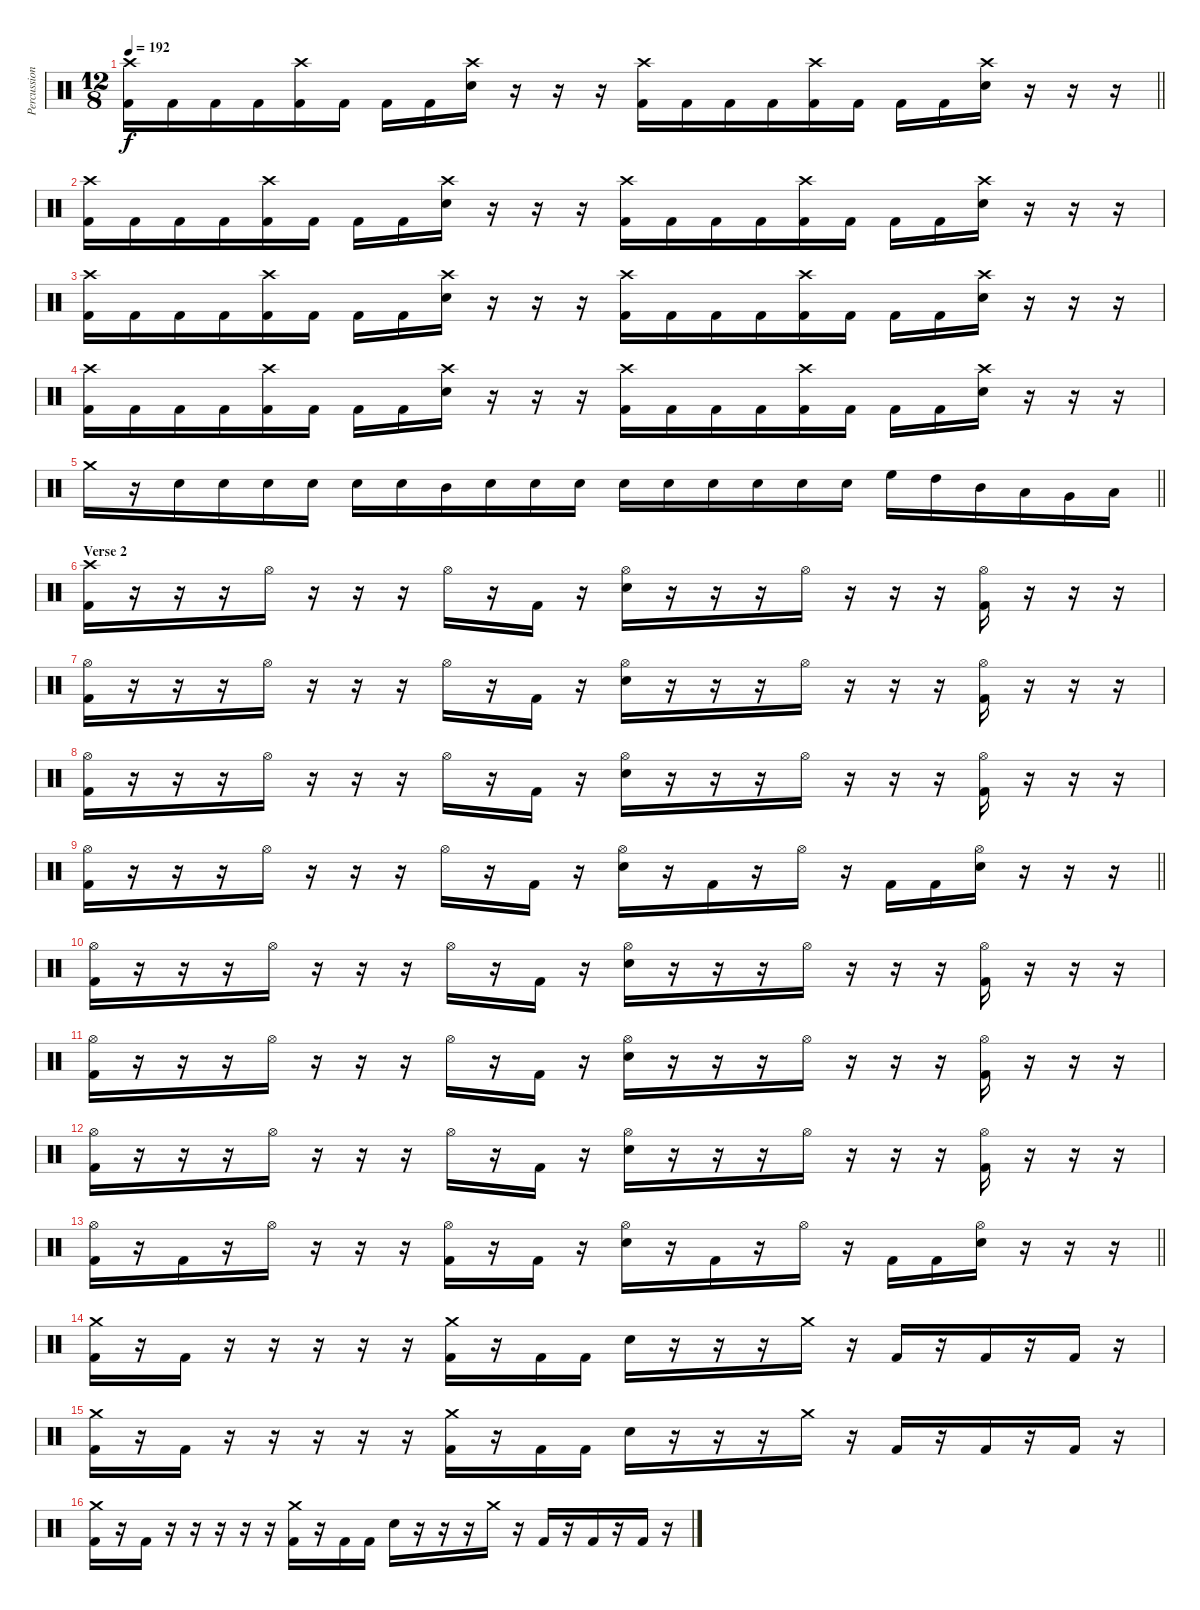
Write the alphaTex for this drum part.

\track ("Percussion" "Percussion") {instrument percussion}
\staff {score}
\articulation defaults
\ts (12 8)
\tempo 192
\clef neutral
\barLineRight lightlight
\ks c
("Crash high (hit)" "Kick (hit) 2").16{dy f} "Kick (hit) 2".16 "Kick (hit) 2".16 "Kick (hit) 2".16 ("Crash high (hit)" "Kick (hit) 2").16 "Kick (hit) 2".16 "Kick (hit) 2".16 "Kick (hit) 2".16 ("Crash high (hit)" "Electric Snare (hit)").16 r.16 r.16 r.16 ("Crash high (hit)" "Kick (hit) 2").16 "Kick (hit) 2".16 "Kick (hit) 2".16 "Kick (hit) 2".16 ("Crash high (hit)" "Kick (hit) 2").16 "Kick (hit) 2".16 "Kick (hit) 2".16 "Kick (hit) 2".16 ("Crash high (hit)" "Electric Snare (hit)").16 r.16 r.16 r.16 |
("Crash high (hit)" "Kick (hit) 2").16 "Kick (hit) 2".16 "Kick (hit) 2".16 "Kick (hit) 2".16 ("Crash high (hit)" "Kick (hit) 2").16 "Kick (hit) 2".16 "Kick (hit) 2".16 "Kick (hit) 2".16 ("Crash high (hit)" "Electric Snare (hit)").16 r.16 r.16 r.16 ("Crash high (hit)" "Kick (hit) 2").16 "Kick (hit) 2".16 "Kick (hit) 2".16 "Kick (hit) 2".16 ("Crash high (hit)" "Kick (hit) 2").16 "Kick (hit) 2".16 "Kick (hit) 2".16 "Kick (hit) 2".16 ("Crash high (hit)" "Electric Snare (hit)").16 r.16 r.16 r.16 |
("Crash high (hit)" "Kick (hit) 2").16 "Kick (hit) 2".16 "Kick (hit) 2".16 "Kick (hit) 2".16 ("Crash high (hit)" "Kick (hit) 2").16 "Kick (hit) 2".16 "Kick (hit) 2".16 "Kick (hit) 2".16 ("Crash high (hit)" "Electric Snare (hit)").16 r.16 r.16 r.16 ("Crash high (hit)" "Kick (hit) 2").16 "Kick (hit) 2".16 "Kick (hit) 2".16 "Kick (hit) 2".16 ("Crash high (hit)" "Kick (hit) 2").16 "Kick (hit) 2".16 "Kick (hit) 2".16 "Kick (hit) 2".16 ("Crash high (hit)" "Electric Snare (hit)").16 r.16 r.16 r.16 |
("Crash high (hit)" "Kick (hit) 2").16 "Kick (hit) 2".16 "Kick (hit) 2".16 "Kick (hit) 2".16 ("Crash high (hit)" "Kick (hit) 2").16 "Kick (hit) 2".16 "Kick (hit) 2".16 "Kick (hit) 2".16 ("Crash high (hit)" "Electric Snare (hit)").16 r.16 r.16 r.16 ("Crash high (hit)" "Kick (hit) 2").16 "Kick (hit) 2".16 "Kick (hit) 2".16 "Kick (hit) 2".16 ("Crash high (hit)" "Kick (hit) 2").16 "Kick (hit) 2".16 "Kick (hit) 2".16 "Kick (hit) 2".16 ("Crash high (hit)" "Electric Snare (hit)").16 r.16 r.16 r.16 |
\barLineRight lightlight "Crash medium (hit)".16
r.16 "Electric Snare (hit)".16 "Electric Snare (hit)".16 "Electric Snare (hit)".16 "Electric Snare (hit)".16 "Electric Snare (hit)".16 "Electric Snare (hit)".16 "Mid Tom (hit)".16 "Electric Snare (hit)".16 "Electric Snare (hit)".16 "Electric Snare (hit)".16 "Electric Snare (hit)".16 "Electric Snare (hit)".16 "Electric Snare (hit)".16 "Electric Snare (hit)".16 "Electric Snare (hit)".16 "Electric Snare (hit)".16 "High Floor Tom (hit)".16 "High Tom (hit)".16 "Mid Tom (hit)".16 "Low Tom (hit)".16 "Very Low Tom (hit)".16 "Low Floor Tom (hit)".16 |
\section ("" "Verse 2")
("Crash high (hit)" "Kick (hit) 2").16 r.16 r.16 r.16 "Hi-Hat (open)".16 r.16 r.16 r.16 "Hi-Hat (open)".16 r.16 "Kick (hit) 2".16 r.16 ("Hi-Hat (open)" "Electric Snare (hit)").16 r.16 r.16 r.16 "Hi-Hat (open)".16 r.16 r.16 r.16 ("Hi-Hat (open)" "Kick (hit) 2").16 r.16 r.16 r.16 |
("Hi-Hat (open)" "Kick (hit) 2").16 r.16 r.16 r.16 "Hi-Hat (open)".16 r.16 r.16 r.16 "Hi-Hat (open)".16 r.16 "Kick (hit) 2".16 r.16 ("Hi-Hat (open)" "Electric Snare (hit)").16 r.16 r.16 r.16 "Hi-Hat (open)".16 r.16 r.16 r.16 ("Hi-Hat (open)" "Kick (hit) 2").16 r.16 r.16 r.16 |
("Hi-Hat (open)" "Kick (hit) 2").16 r.16 r.16 r.16 "Hi-Hat (open)".16 r.16 r.16 r.16 "Hi-Hat (open)".16 r.16 "Kick (hit) 2".16 r.16 ("Hi-Hat (open)" "Electric Snare (hit)").16 r.16 r.16 r.16 "Hi-Hat (open)".16 r.16 r.16 r.16 ("Hi-Hat (open)" "Kick (hit) 2").16 r.16 r.16 r.16 |
\barLineRight lightlight
("Hi-Hat (open)" "Kick (hit) 2").16 r.16 r.16 r.16 "Hi-Hat (open)".16 r.16 r.16 r.16 "Hi-Hat (open)".16 r.16 "Kick (hit) 2".16 r.16 ("Hi-Hat (open)" "Electric Snare (hit)").16 r.16 "Kick (hit) 2".16 r.16 "Hi-Hat (open)".16 r.16 "Kick (hit) 2".16 "Kick (hit) 2".16 ("Hi-Hat (open)" "Electric Snare (hit)").16 r.16 r.16 r.16 |
("Hi-Hat (open)" "Kick (hit) 2").16 r.16 r.16 r.16 "Hi-Hat (open)".16 r.16 r.16 r.16 "Hi-Hat (open)".16 r.16 "Kick (hit) 2".16 r.16 ("Hi-Hat (open)" "Electric Snare (hit)").16 r.16 r.16 r.16 "Hi-Hat (open)".16 r.16 r.16 r.16 ("Hi-Hat (open)" "Kick (hit) 2").16 r.16 r.16 r.16 |
("Hi-Hat (open)" "Kick (hit) 2").16 r.16 r.16 r.16 "Hi-Hat (open)".16 r.16 r.16 r.16 "Hi-Hat (open)".16 r.16 "Kick (hit) 2".16 r.16 ("Hi-Hat (open)" "Electric Snare (hit)").16 r.16 r.16 r.16 "Hi-Hat (open)".16 r.16 r.16 r.16 ("Hi-Hat (open)" "Kick (hit) 2").16 r.16 r.16 r.16 |
("Hi-Hat (open)" "Kick (hit) 2").16 r.16 r.16 r.16 "Hi-Hat (open)".16 r.16 r.16 r.16 "Hi-Hat (open)".16 r.16 "Kick (hit) 2".16 r.16 ("Hi-Hat (open)" "Electric Snare (hit)").16 r.16 r.16 r.16 "Hi-Hat (open)".16 r.16 r.16 r.16 ("Hi-Hat (open)" "Kick (hit) 2").16 r.16 r.16 r.16 |
\barLineRight lightlight
("Hi-Hat (open)" "Kick (hit) 2").16 r.16 "Kick (hit) 2".16 r.16 "Hi-Hat (open)".16 r.16 r.16 r.16 ("Hi-Hat (open)" "Kick (hit) 2").16 r.16 "Kick (hit) 2".16 r.16 ("Hi-Hat (open)" "Electric Snare (hit)").16 r.16 "Kick (hit) 2".16 r.16 "Hi-Hat (open)".16 r.16 "Kick (hit) 2".16 "Kick (hit) 2".16 ("Hi-Hat (open)" "Electric Snare (hit)").16 r.16 r.16 r.16 |
("Crash medium (hit)" "Kick (hit) 2").16 r.16 "Kick (hit) 2".16 r.16 r.16 r.16 r.16 r.16 ("Crash medium (hit)" "Kick (hit) 2").16 r.16 "Kick (hit) 2".16 "Kick (hit) 2".16 "Electric Snare (hit)".16 r.16 r.16 r.16 "Crash medium (hit)".16 r.16 "Kick (hit) 2".16 r.16 "Kick (hit) 2".16 r.16 "Kick (hit) 2".16 r.16 |
("Crash medium (hit)" "Kick (hit) 2").16 r.16 "Kick (hit) 2".16 r.16 r.16 r.16 r.16 r.16 ("Crash medium (hit)" "Kick (hit) 2").16 r.16 "Kick (hit) 2".16 "Kick (hit) 2".16 "Electric Snare (hit)".16 r.16 r.16 r.16 "Crash medium (hit)".16 r.16 "Kick (hit) 2".16 r.16 "Kick (hit) 2".16 r.16 "Kick (hit) 2".16 r.16 |
("Crash medium (hit)" "Kick (hit) 2").16 r.16 "Kick (hit) 2".16 r.16 r.16 r.16 r.16 r.16 ("Crash medium (hit)" "Kick (hit) 2").16 r.16 "Kick (hit) 2".16 "Kick (hit) 2".16 "Electric Snare (hit)".16 r.16 r.16 r.16 "Crash medium (hit)".16 r.16 "Kick (hit) 2".16 r.16 "Kick (hit) 2".16 r.16 "Kick (hit) 2".16 r.16
